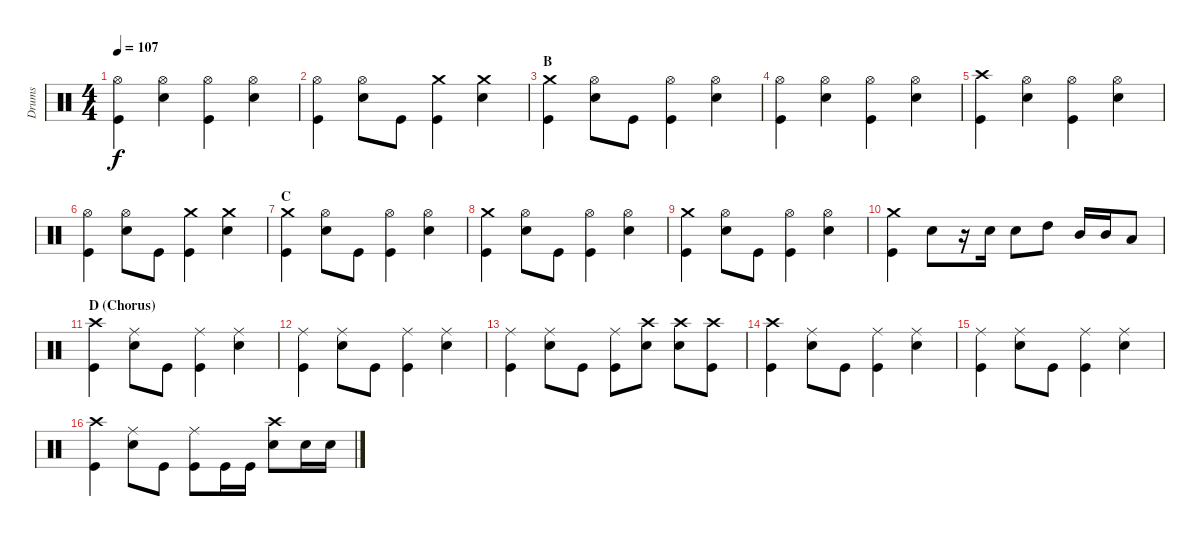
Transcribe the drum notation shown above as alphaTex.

\track ("Drums" "Drums") {instrument percussion}
\staff {score}
\articulation defaults
\ts (4 4)
\tempo 107
\clef neutral
\ks c
("Hi-Hat (open)" "Kick (hit)").4{dy f} ("Hi-Hat (open)" "Snare (hit) 2").4 ("Hi-Hat (open)" "Kick (hit)").4 ("Hi-Hat (open)" "Snare (hit) 2").4 |
("Hi-Hat (open)" "Kick (hit)").4 ("Hi-Hat (open)" "Snare (hit) 2").8 "Kick (hit)".8 ("Crash medium (hit)" "Kick (hit)").4 ("Crash medium (hit)" "Snare (hit) 2").4 |
\section ("" "B")
("Crash medium (hit)" "Kick (hit)").4 ("Hi-Hat (open)" "Snare (hit) 2").8 "Kick (hit)".8 ("Hi-Hat (open)" "Kick (hit)").4 ("Hi-Hat (open)" "Snare (hit) 2").4 |
("Hi-Hat (open)" "Kick (hit)").4 ("Hi-Hat (open)" "Snare (hit) 2").4 ("Hi-Hat (open)" "Kick (hit)").4 ("Hi-Hat (open)" "Snare (hit) 2").4 |
("Crash high (hit)" "Kick (hit)").4 ("Hi-Hat (open)" "Snare (hit) 2").4 ("Hi-Hat (open)" "Kick (hit)").4 ("Hi-Hat (open)" "Snare (hit) 2").4 |
("Hi-Hat (open)" "Kick (hit)").4 ("Hi-Hat (open)" "Snare (hit) 2").8 "Kick (hit)".8 ("Crash medium (hit)" "Kick (hit)").4 ("Crash medium (hit)" "Snare (hit) 2").4 |
\section ("" "C")
("Crash medium (hit)" "Kick (hit)").4 ("Hi-Hat (open)" "Snare (hit) 2").8 "Kick (hit)".8 ("Hi-Hat (open)" "Kick (hit)").4 ("Hi-Hat (open)" "Snare (hit) 2").4 |
("Crash medium (hit)" "Kick (hit)").4 ("Hi-Hat (open)" "Snare (hit) 2").8 "Kick (hit)".8 ("Hi-Hat (open)" "Kick (hit)").4 ("Hi-Hat (open)" "Snare (hit) 2").4 |
("Crash medium (hit)" "Kick (hit)").4 ("Hi-Hat (open)" "Snare (hit) 2").8 "Kick (hit)".8 ("Hi-Hat (open)" "Kick (hit)").4 ("Hi-Hat (open)" "Snare (hit) 2").4 |
("Crash medium (hit)" "Kick (hit)").4 "Snare (hit) 2".8 r.16 "Snare (hit) 2".16 "Snare (hit) 2".8 "High Tom (hit)".8 "Mid Tom (hit)".16 "Mid Tom (hit)".16 "Low Tom (hit)".8 |
\section ("" "D (Chorus)")
("Crash high (hit)" "Kick (hit)").4 ("Ride (middle)" "Snare (hit) 2").8 "Kick (hit)".8 ("Ride (middle)" "Kick (hit)").4 ("Ride (middle)" "Snare (hit) 2").4 |
("Ride (middle)" "Kick (hit)").4 ("Ride (middle)" "Snare (hit) 2").8 "Kick (hit)".8 ("Ride (middle)" "Kick (hit)").4 ("Ride (middle)" "Snare (hit) 2").4 |
("Ride (middle)" "Kick (hit)").4 ("Ride (middle)" "Snare (hit) 2").8 "Kick (hit)".8 ("Ride (middle)" "Kick (hit)").8 ("Crash high (hit)" "Snare (hit) 2").8 ("Crash high (hit)" "Snare (hit) 2").8 ("Crash high (hit)" "Kick (hit)").8 |
("Crash high (hit)" "Kick (hit)").4 ("Ride (middle)" "Snare (hit) 2").8 "Kick (hit)".8 ("Ride (middle)" "Kick (hit)").4 ("Ride (middle)" "Snare (hit) 2").4 |
("Ride (middle)" "Kick (hit)").4 ("Ride (middle)" "Snare (hit) 2").8 "Kick (hit)".8 ("Ride (middle)" "Kick (hit)").4 ("Ride (middle)" "Snare (hit) 2").4 |
("Crash high (hit)" "Kick (hit)").4 ("Ride (middle)" "Snare (hit) 2").8 "Kick (hit)".8 ("Ride (middle)" "Kick (hit)").8 "Kick (hit)".16 "Kick (hit)".16 ("Crash high (hit)" "Snare (hit) 2").8 "Snare (hit) 2".16 "Snare (hit) 2".16
